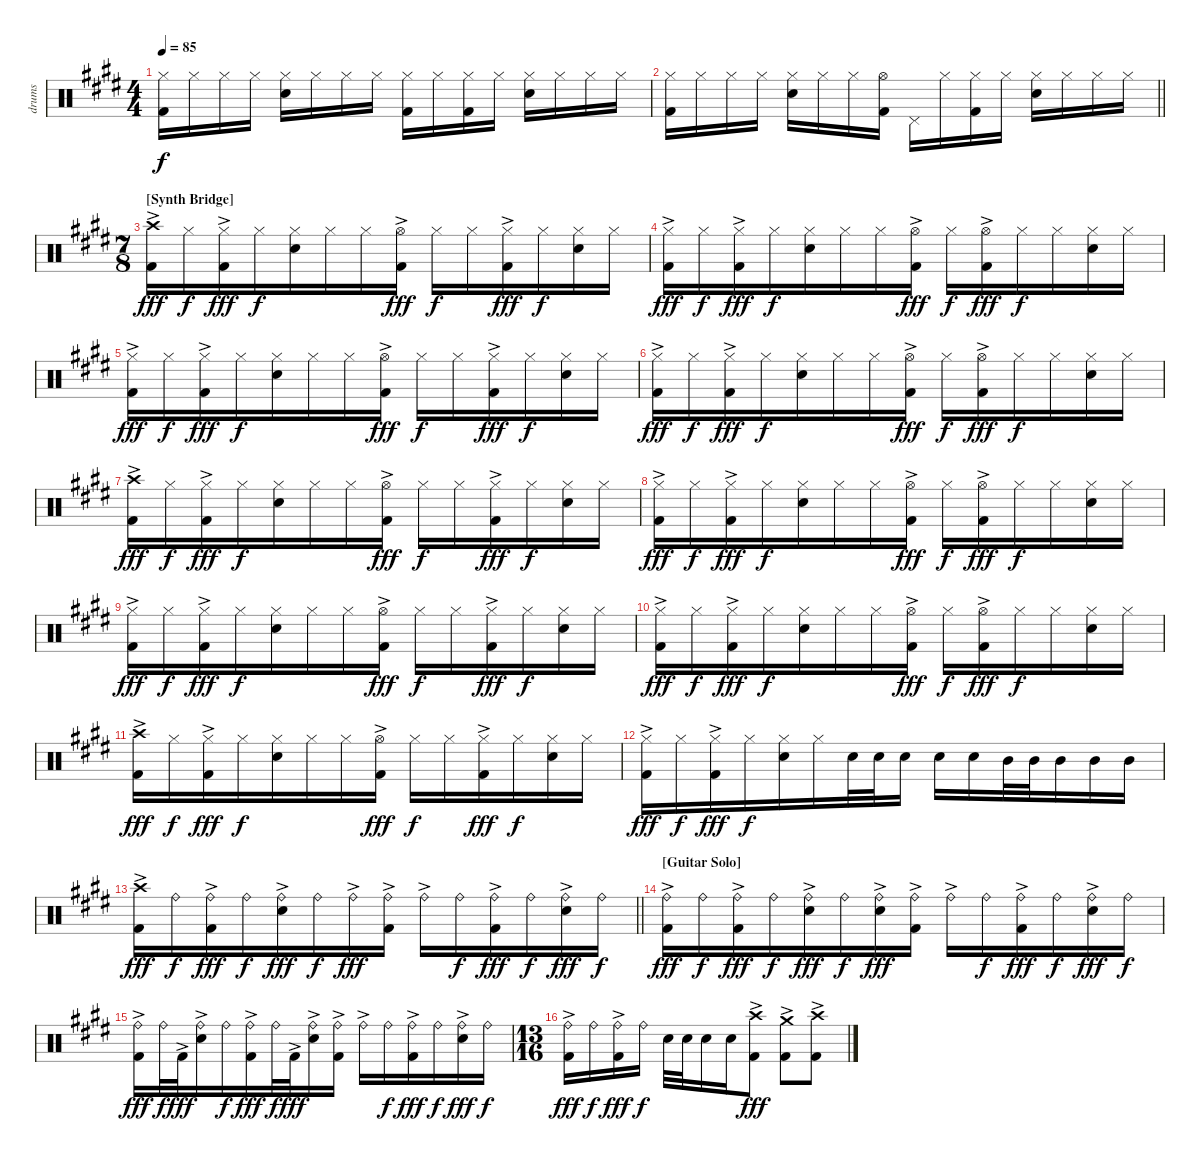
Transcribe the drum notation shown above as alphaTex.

\track ("drums" "drums") {instrument percussion}
\staff {score}
\articulation defaults
\ts (4 4)
\tempo 85
\clef neutral
\ks e
("Hi-Hat (closed)" "Kick (hit) 2").16{dy f} "Hi-Hat (closed)".16 "Hi-Hat (closed)".16 "Hi-Hat (closed)".16 ("Hi-Hat (closed)" "Snare (hit) 2").16 "Hi-Hat (closed)".16 "Hi-Hat (closed)".16 "Hi-Hat (closed)".16 ("Hi-Hat (closed)" "Kick (hit) 2").16 "Hi-Hat (closed)".16 ("Hi-Hat (closed)" "Kick (hit) 2").16 "Hi-Hat (closed)".16 ("Hi-Hat (closed)" "Snare (hit) 2").16 "Hi-Hat (closed)".16 "Hi-Hat (closed)".16 "Hi-Hat (closed)".16 |
\barLineRight lightlight
("Hi-Hat (closed)" "Kick (hit) 2").16 "Hi-Hat (closed)".16 "Hi-Hat (closed)".16 "Hi-Hat (closed)".16 ("Hi-Hat (closed)" "Snare (hit) 2").16 "Hi-Hat (closed)".16 "Hi-Hat (closed)".16 ("Hi-Hat (open)" "Kick (hit) 2").16 "Pedal Hi-Hat (hit)".16 "Hi-Hat (closed)".16 ("Hi-Hat (closed)" "Kick (hit) 2").16 "Hi-Hat (closed)".16 ("Hi-Hat (closed)" "Snare (hit) 2").16 "Hi-Hat (closed)".16 "Hi-Hat (closed)".16 "Hi-Hat (closed)".16 |
\ts (7 8)
\section ("" "[Synth Bridge]")
("Crash high (hit)" "Kick (hit) 2"{ac}).16{dy fff} "Hi-Hat (closed)".16{dy f} ("Hi-Hat (closed)" "Kick (hit) 2"{ac}).16{dy fff} "Hi-Hat (closed)".16{dy f} ("Hi-Hat (closed)" "Snare (hit) 2").16 "Hi-Hat (closed)".16 "Hi-Hat (closed)".16 ("Hi-Hat (open)" "Kick (hit) 2"{ac}).16{dy fff} "Hi-Hat (closed)".16{dy f} "Hi-Hat (closed)".16 ("Hi-Hat (closed)" "Kick (hit) 2"{ac}).16{dy fff} "Hi-Hat (closed)".16{dy f} ("Hi-Hat (closed)" "Snare (hit) 2").16 "Hi-Hat (closed)".16 |
("Hi-Hat (closed)" "Kick (hit) 2"{ac}).16{dy fff} "Hi-Hat (closed)".16{dy f} ("Hi-Hat (closed)" "Kick (hit) 2"{ac}).16{dy fff} "Hi-Hat (closed)".16{dy f} ("Hi-Hat (closed)" "Snare (hit) 2").16 "Hi-Hat (closed)".16 "Hi-Hat (closed)".16 ("Hi-Hat (open)" "Kick (hit) 2"{ac}).16{dy fff} "Hi-Hat (closed)".16{dy f} ("Hi-Hat (open)" "Kick (hit) 2"{ac}).16{dy fff} "Hi-Hat (closed)".16{dy f} "Hi-Hat (closed)".16 ("Hi-Hat (closed)" "Snare (hit) 2").16 "Hi-Hat (closed)".16 |
("Hi-Hat (closed)" "Kick (hit) 2"{ac}).16{dy fff} "Hi-Hat (closed)".16{dy f} ("Hi-Hat (closed)" "Kick (hit) 2"{ac}).16{dy fff} "Hi-Hat (closed)".16{dy f} ("Hi-Hat (closed)" "Snare (hit) 2").16 "Hi-Hat (closed)".16 "Hi-Hat (closed)".16 ("Hi-Hat (open)" "Kick (hit) 2"{ac}).16{dy fff} "Hi-Hat (closed)".16{dy f} "Hi-Hat (closed)".16 ("Hi-Hat (closed)" "Kick (hit) 2"{ac}).16{dy fff} "Hi-Hat (closed)".16{dy f} ("Hi-Hat (closed)" "Snare (hit) 2").16 "Hi-Hat (closed)".16 |
("Hi-Hat (closed)" "Kick (hit) 2"{ac}).16{dy fff} "Hi-Hat (closed)".16{dy f} ("Hi-Hat (closed)" "Kick (hit) 2"{ac}).16{dy fff} "Hi-Hat (closed)".16{dy f} ("Hi-Hat (closed)" "Snare (hit) 2").16 "Hi-Hat (closed)".16 "Hi-Hat (closed)".16 ("Hi-Hat (open)" "Kick (hit) 2"{ac}).16{dy fff} "Hi-Hat (closed)".16{dy f} ("Hi-Hat (open)" "Kick (hit) 2"{ac}).16{dy fff} "Hi-Hat (closed)".16{dy f} "Hi-Hat (closed)".16 ("Hi-Hat (closed)" "Snare (hit) 2").16 "Hi-Hat (closed)".16 |
("Crash high (hit)" "Kick (hit) 2"{ac}).16{dy fff} "Hi-Hat (closed)".16{dy f} ("Hi-Hat (closed)" "Kick (hit) 2"{ac}).16{dy fff} "Hi-Hat (closed)".16{dy f} ("Hi-Hat (closed)" "Snare (hit) 2").16 "Hi-Hat (closed)".16 "Hi-Hat (closed)".16 ("Hi-Hat (open)" "Kick (hit) 2"{ac}).16{dy fff} "Hi-Hat (closed)".16{dy f} "Hi-Hat (closed)".16 ("Hi-Hat (closed)" "Kick (hit) 2"{ac}).16{dy fff} "Hi-Hat (closed)".16{dy f} ("Hi-Hat (closed)" "Snare (hit) 2").16 "Hi-Hat (closed)".16 |
("Hi-Hat (closed)" "Kick (hit) 2"{ac}).16{dy fff} "Hi-Hat (closed)".16{dy f} ("Hi-Hat (closed)" "Kick (hit) 2"{ac}).16{dy fff} "Hi-Hat (closed)".16{dy f} ("Hi-Hat (closed)" "Snare (hit) 2").16 "Hi-Hat (closed)".16 "Hi-Hat (closed)".16 ("Hi-Hat (open)" "Kick (hit) 2"{ac}).16{dy fff} "Hi-Hat (closed)".16{dy f} ("Hi-Hat (open)" "Kick (hit) 2"{ac}).16{dy fff} "Hi-Hat (closed)".16{dy f} "Hi-Hat (closed)".16 ("Hi-Hat (closed)" "Snare (hit) 2").16 "Hi-Hat (closed)".16 |
("Hi-Hat (closed)" "Kick (hit) 2"{ac}).16{dy fff} "Hi-Hat (closed)".16{dy f} ("Hi-Hat (closed)" "Kick (hit) 2"{ac}).16{dy fff} "Hi-Hat (closed)".16{dy f} ("Hi-Hat (closed)" "Snare (hit) 2").16 "Hi-Hat (closed)".16 "Hi-Hat (closed)".16 ("Hi-Hat (open)" "Kick (hit) 2"{ac}).16{dy fff} "Hi-Hat (closed)".16{dy f} "Hi-Hat (closed)".16 ("Hi-Hat (closed)" "Kick (hit) 2"{ac}).16{dy fff} "Hi-Hat (closed)".16{dy f} ("Hi-Hat (closed)" "Snare (hit) 2").16 "Hi-Hat (closed)".16 |
("Hi-Hat (closed)" "Kick (hit) 2"{ac}).16{dy fff} "Hi-Hat (closed)".16{dy f} ("Hi-Hat (closed)" "Kick (hit) 2"{ac}).16{dy fff} "Hi-Hat (closed)".16{dy f} ("Hi-Hat (closed)" "Snare (hit) 2").16 "Hi-Hat (closed)".16 "Hi-Hat (closed)".16 ("Hi-Hat (open)" "Kick (hit) 2"{ac}).16{dy fff} "Hi-Hat (closed)".16{dy f} ("Hi-Hat (open)" "Kick (hit) 2"{ac}).16{dy fff} "Hi-Hat (closed)".16{dy f} "Hi-Hat (closed)".16 ("Hi-Hat (closed)" "Snare (hit) 2").16 "Hi-Hat (closed)".16 |
("Crash high (hit)" "Kick (hit) 2"{ac}).16{dy fff} "Hi-Hat (closed)".16{dy f} ("Hi-Hat (closed)" "Kick (hit) 2"{ac}).16{dy fff} "Hi-Hat (closed)".16{dy f} ("Hi-Hat (closed)" "Snare (hit) 2").16 "Hi-Hat (closed)".16 "Hi-Hat (closed)".16 ("Hi-Hat (open)" "Kick (hit) 2"{ac}).16{dy fff} "Hi-Hat (closed)".16{dy f} "Hi-Hat (closed)".16 ("Hi-Hat (closed)" "Kick (hit) 2"{ac}).16{dy fff} "Hi-Hat (closed)".16{dy f} ("Hi-Hat (closed)" "Snare (hit) 2").16 "Hi-Hat (closed)".16 |
("Hi-Hat (closed)" "Kick (hit) 2"{ac}).16{dy fff} "Hi-Hat (closed)".16{dy f} ("Hi-Hat (closed)" "Kick (hit) 2"{ac}).16{dy fff} "Hi-Hat (closed)".16{dy f} ("Hi-Hat (closed)" "Snare (hit) 2").16 "Hi-Hat (closed)".16 "Snare (hit) 2".32 "Snare (hit) 2".32 "Snare (hit) 2".16 "Snare (hit) 2".16 "Snare (hit) 2".16 "Mid Tom (hit)".32 "Mid Tom (hit)".32 "Mid Tom (hit)".16 "Mid Tom (hit)".16 "Mid Tom (hit)".16 |
\barLineRight lightlight
("Crash high (hit)" "Kick (hit) 2"{ac}).16{dy fff} "Ride (bell)".16{dy f} ("Ride (bell)"{ac} "Kick (hit) 2"{ac}).16{dy fff} "Ride (bell)".16{dy f} ("Ride (bell)"{ac} "Snare (hit) 2").16{dy fff} "Ride (bell)".16{dy f} "Ride (bell)"{ac}.16{dy fff} ("Ride (bell)" "Kick (hit) 2"{ac}).16 "Ride (bell)"{ac}.16 "Ride (bell)".16{dy f} ("Ride (bell)"{ac} "Kick (hit) 2"{ac}).16{dy fff} "Ride (bell)".16{dy f} ("Ride (bell)"{ac} "Snare (hit) 2").16{dy fff} "Ride (bell)".16{dy f} |
\section ("" "[Guitar Solo]")
("Ride (bell)"{ac} "Kick (hit) 2"{ac}).16{dy fff} "Ride (bell)".16{dy f} ("Ride (bell)"{ac} "Kick (hit) 2"{ac}).16{dy fff} "Ride (bell)".16{dy f} ("Ride (bell)"{ac} "Snare (hit) 2").16{dy fff} "Ride (bell)".16{dy f} ("Ride (bell)"{ac} "Snare (hit) 2").16{dy fff} ("Ride (bell)" "Kick (hit) 2"{ac}).16 "Ride (bell)"{ac}.16 "Ride (bell)".16{dy f} ("Ride (bell)"{ac} "Kick (hit) 2"{ac}).16{dy fff} "Ride (bell)".16{dy f} ("Ride (bell)"{ac} "Snare (hit) 2").16{dy fff} "Ride (bell)".16{dy f} |
("Ride (bell)"{ac} "Kick (hit) 2"{ac}).16{dy fff} "Ride (bell)".32{dy f} "Kick (hit) 2"{ac}.32{dy fff} ("Ride (bell)"{ac} "Snare (hit) 2").16 "Ride (bell)".16{dy f} ("Ride (bell)"{ac} "Kick (hit) 2"{ac}).16{dy fff} "Ride (bell)".32{dy f} "Kick (hit) 2"{ac}.32{dy fff} ("Ride (bell)"{ac} "Snare (hit) 2").16 ("Ride (bell)" "Kick (hit) 2"{ac}).16 "Ride (bell)"{ac}.16 "Ride (bell)".16{dy f} ("Ride (bell)"{ac} "Kick (hit) 2"{ac}).16{dy fff} "Ride (bell)".16{dy f} ("Ride (bell)"{ac} "Snare (hit) 2").16{dy fff} "Ride (bell)".16{dy f} |
\ts (13 16)
("Ride (bell)"{ac} "Kick (hit) 2"{ac}).16{dy fff} "Ride (bell)".16{dy f} ("Ride (bell)"{ac} "Kick (hit) 2"{ac}).16{dy fff} "Ride (bell)".16{dy f} "Snare (hit) 2".32 "Snare (hit) 2".32 "Snare (hit) 2".16 "Snare (hit) 2".16 ("Crash high (hit)" "Kick (hit) 2"{ac}).8{dy fff} ("Crash medium (hit)" "Kick (hit) 2"{ac}).8 ("Crash high (hit)" "Kick (hit) 2"{ac}).8
